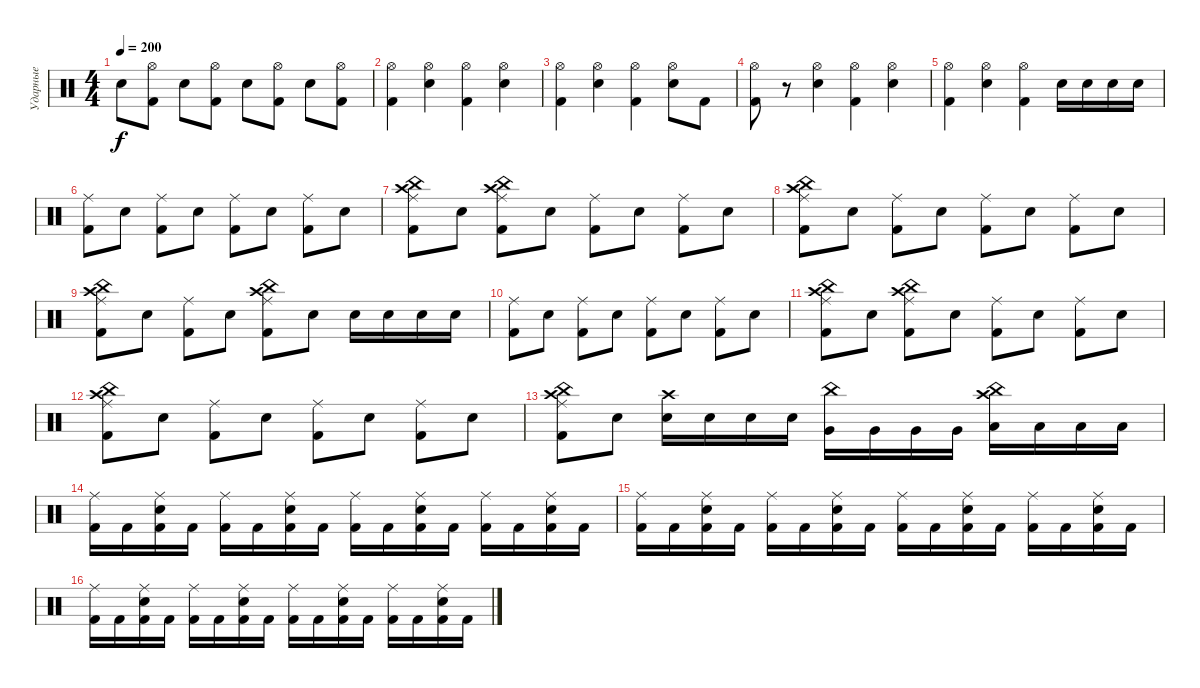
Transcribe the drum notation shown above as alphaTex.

\track ("Ударные" "Ударные") {instrument percussion}
\staff {score}
\articulation defaults
\ts (4 4)
\tempo 200
\clef neutral
\ks c "Electric Snare (hit)".8{dy f}
("Kick (hit) 2" "Hi-Hat (open)").8 "Electric Snare (hit)".8 ("Kick (hit) 2" "Hi-Hat (open)").8 "Electric Snare (hit)".8 ("Kick (hit) 2" "Hi-Hat (open)").8 "Electric Snare (hit)".8 ("Kick (hit) 2" "Hi-Hat (open)").8 |
("Kick (hit) 2" "Hi-Hat (open)").4 ("Electric Snare (hit)" "Hi-Hat (open)").4 ("Kick (hit) 2" "Hi-Hat (open)").4 ("Electric Snare (hit)" "Hi-Hat (open)").4 |
("Kick (hit) 2" "Hi-Hat (open)").4 ("Electric Snare (hit)" "Hi-Hat (open)").4 ("Kick (hit) 2" "Hi-Hat (open)").4 ("Electric Snare (hit)" "Hi-Hat (open)").8 "Kick (hit) 2".8 |
("Kick (hit) 2" "Hi-Hat (open)").8 r.8 ("Electric Snare (hit)" "Hi-Hat (open)").4 ("Kick (hit) 2" "Hi-Hat (open)").4 ("Electric Snare (hit)" "Hi-Hat (open)").4 |
("Kick (hit) 2" "Hi-Hat (open)").4 ("Electric Snare (hit)" "Hi-Hat (open)").4 ("Kick (hit) 2" "Hi-Hat (open)").4 "Electric Snare (hit)".16 "Electric Snare (hit)".16 "Electric Snare (hit)".16 "Electric Snare (hit)".16 |
("Kick (hit) 2" "Ride (middle)").8 "Electric Snare (hit)".8 ("Kick (hit) 2" "Ride (middle)").8 "Electric Snare (hit)".8 ("Kick (hit) 2" "Ride (middle)").8 "Electric Snare (hit)".8 ("Kick (hit) 2" "Ride (middle)").8 "Electric Snare (hit)".8 |
("Kick (hit) 2" "Crash high (hit)" "China (hit)" "Ride (middle)").8 "Electric Snare (hit)".8 ("Kick (hit) 2" "China (hit)" "Crash high (hit)" "Ride (middle)").8 "Electric Snare (hit)".8 ("Kick (hit) 2" "Ride (middle)").8 "Electric Snare (hit)".8 ("Kick (hit) 2" "Ride (middle)").8 "Electric Snare (hit)".8 |
("Kick (hit) 2" "Crash high (hit)" "China (hit)" "Ride (middle)").8 "Electric Snare (hit)".8 ("Kick (hit) 2" "Ride (middle)").8 "Electric Snare (hit)".8 ("Kick (hit) 2" "Ride (middle)").8 "Electric Snare (hit)".8 ("Kick (hit) 2" "Ride (middle)").8 "Electric Snare (hit)".8 |
("Kick (hit) 2" "China (hit)" "Crash high (hit)" "Ride (middle)").8 "Electric Snare (hit)".8 ("Kick (hit) 2" "Ride (middle)").8 "Electric Snare (hit)".8 ("Kick (hit) 2" "Crash high (hit)" "China (hit)" "Ride (middle)").8 "Electric Snare (hit)".8 "Electric Snare (hit)".16 "Electric Snare (hit)".16 "Electric Snare (hit)".16 "Electric Snare (hit)".16 |
("Kick (hit) 2" "Ride (middle)").8 "Electric Snare (hit)".8 ("Kick (hit) 2" "Ride (middle)").8 "Electric Snare (hit)".8 ("Kick (hit) 2" "Ride (middle)").8 "Electric Snare (hit)".8 ("Kick (hit) 2" "Ride (middle)").8 "Electric Snare (hit)".8 |
("Kick (hit) 2" "Crash high (hit)" "China (hit)" "Ride (middle)").8 "Electric Snare (hit)".8 ("Kick (hit) 2" "China (hit)" "Crash high (hit)" "Ride (middle)").8 "Electric Snare (hit)".8 ("Kick (hit) 2" "Ride (middle)").8 "Electric Snare (hit)".8 ("Kick (hit) 2" "Ride (middle)").8 "Electric Snare (hit)".8 |
("Kick (hit) 2" "Crash high (hit)" "China (hit)" "Ride (middle)").8 "Electric Snare (hit)".8 ("Kick (hit) 2" "Ride (middle)").8 "Electric Snare (hit)".8 ("Kick (hit) 2" "Ride (middle)").8 "Electric Snare (hit)".8 ("Kick (hit) 2" "Ride (middle)").8 "Electric Snare (hit)".8 |
("Kick (hit) 2" "Crash high (hit)" "China (hit)" "Ride (middle)").8 "Electric Snare (hit)".8 ("Snare (hit) 2" "Crash high (hit)").16 "Snare (hit) 2".16 "Snare (hit) 2".16 "Snare (hit) 2".16 ("Very Low Tom (hit)" "China (hit)").16 "Very Low Tom (hit)".16 "Very Low Tom (hit)".16 "Very Low Tom (hit)".16 ("Low Floor Tom (hit)" "China (hit)" "Crash high (hit)").16 "Low Floor Tom (hit)".16 "Low Floor Tom (hit)".16 "Low Floor Tom (hit)".16 |
("Kick (hit) 2" "Ride (middle)").16 "Kick (hit) 2".16 ("Kick (hit) 2" "Electric Snare (hit)" "Ride (middle)").16 "Kick (hit) 2".16 ("Kick (hit) 2" "Ride (middle)").16 "Kick (hit) 2".16 ("Kick (hit) 2" "Electric Snare (hit)" "Ride (middle)").16 "Kick (hit) 2".16 ("Kick (hit) 2" "Ride (middle)").16 "Kick (hit) 2".16 ("Kick (hit) 2" "Electric Snare (hit)" "Ride (middle)").16 "Kick (hit) 2".16 ("Kick (hit) 2" "Ride (middle)").16 "Kick (hit) 2".16 ("Kick (hit) 2" "Electric Snare (hit)" "Ride (middle)").16 "Kick (hit) 2".16 |
("Kick (hit) 2" "Ride (middle)").16 "Kick (hit) 2".16 ("Kick (hit) 2" "Electric Snare (hit)" "Ride (middle)").16 "Kick (hit) 2".16 ("Kick (hit) 2" "Ride (middle)").16 "Kick (hit) 2".16 ("Kick (hit) 2" "Electric Snare (hit)" "Ride (middle)").16 "Kick (hit) 2".16 ("Kick (hit) 2" "Ride (middle)").16 "Kick (hit) 2".16 ("Kick (hit) 2" "Electric Snare (hit)" "Ride (middle)").16 "Kick (hit) 2".16 ("Kick (hit) 2" "Ride (middle)").16 "Kick (hit) 2".16 ("Kick (hit) 2" "Electric Snare (hit)" "Ride (middle)").16 "Kick (hit) 2".16 |
("Kick (hit) 2" "Ride (middle)").16 "Kick (hit) 2".16 ("Kick (hit) 2" "Electric Snare (hit)" "Ride (middle)").16 "Kick (hit) 2".16 ("Kick (hit) 2" "Ride (middle)").16 "Kick (hit) 2".16 ("Kick (hit) 2" "Electric Snare (hit)" "Ride (middle)").16 "Kick (hit) 2".16 ("Kick (hit) 2" "Ride (middle)").16 "Kick (hit) 2".16 ("Kick (hit) 2" "Electric Snare (hit)" "Ride (middle)").16 "Kick (hit) 2".16 ("Kick (hit) 2" "Ride (middle)").16 "Kick (hit) 2".16 ("Kick (hit) 2" "Electric Snare (hit)" "Ride (middle)").16 "Kick (hit) 2".16
